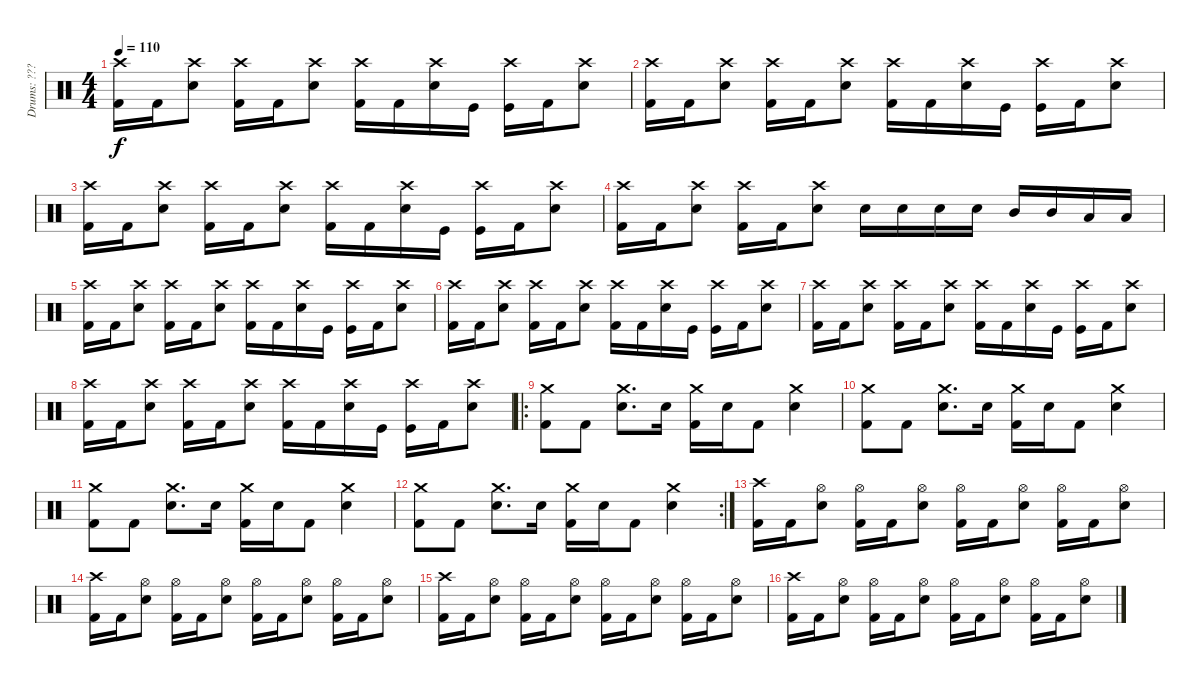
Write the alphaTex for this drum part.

\track ("Drums: ???" "Drums: ???") {instrument percussion}
\staff {score}
\articulation defaults
\ts (4 4)
\tempo 110
\clef neutral
\ks c
("Kick (hit) 2" "Crash high (hit)").16{dy f} "Kick (hit) 2".16 ("Electric Snare (hit)" "Crash high (hit)").8 ("Kick (hit) 2" "Crash high (hit)").16 "Kick (hit) 2".16 ("Electric Snare (hit)" "Crash high (hit)").8 ("Kick (hit) 2" "Crash high (hit)").16 "Kick (hit) 2".16 ("Electric Snare (hit)" "Crash high (hit)").16 "Kick (hit)".16 ("Kick (hit)" "Crash high (hit)").16 "Kick (hit) 2".16 ("Electric Snare (hit)" "Crash high (hit)").8 |
("Kick (hit) 2" "Crash high (hit)").16 "Kick (hit) 2".16 ("Electric Snare (hit)" "Crash high (hit)").8 ("Kick (hit) 2" "Crash high (hit)").16 "Kick (hit) 2".16 ("Electric Snare (hit)" "Crash high (hit)").8 ("Kick (hit) 2" "Crash high (hit)").16 "Kick (hit) 2".16 ("Electric Snare (hit)" "Crash high (hit)").16 "Kick (hit)".16 ("Kick (hit)" "Crash high (hit)").16 "Kick (hit) 2".16 ("Electric Snare (hit)" "Crash high (hit)").8 |
("Kick (hit) 2" "Crash high (hit)").16 "Kick (hit) 2".16 ("Electric Snare (hit)" "Crash high (hit)").8 ("Kick (hit) 2" "Crash high (hit)").16 "Kick (hit) 2".16 ("Electric Snare (hit)" "Crash high (hit)").8 ("Kick (hit) 2" "Crash high (hit)").16 "Kick (hit) 2".16 ("Electric Snare (hit)" "Crash high (hit)").16 "Kick (hit)".16 ("Kick (hit)" "Crash high (hit)").16 "Kick (hit) 2".16 ("Electric Snare (hit)" "Crash high (hit)").8 |
("Kick (hit) 2" "Crash high (hit)").16 "Kick (hit) 2".16 ("Electric Snare (hit)" "Crash high (hit)").8 ("Kick (hit) 2" "Crash high (hit)").16 "Kick (hit) 2".16 ("Electric Snare (hit)" "Crash high (hit)").8 "Electric Snare (hit)".16 "Electric Snare (hit)".16 "Electric Snare (hit)".16 "Electric Snare (hit)".16 "Mid Tom (hit)".16 "Mid Tom (hit)".16 "Low Tom (hit)".16 "Low Tom (hit)".16 |
("Kick (hit) 2" "Crash high (hit)").16 "Kick (hit) 2".16 ("Electric Snare (hit)" "Crash high (hit)").8 ("Kick (hit) 2" "Crash high (hit)").16 "Kick (hit) 2".16 ("Electric Snare (hit)" "Crash high (hit)").8 ("Kick (hit) 2" "Crash high (hit)").16 "Kick (hit) 2".16 ("Electric Snare (hit)" "Crash high (hit)").16 "Kick (hit)".16 ("Kick (hit)" "Crash high (hit)").16 "Kick (hit) 2".16 ("Electric Snare (hit)" "Crash high (hit)").8 |
("Kick (hit) 2" "Crash high (hit)").16 "Kick (hit) 2".16 ("Electric Snare (hit)" "Crash high (hit)").8 ("Kick (hit) 2" "Crash high (hit)").16 "Kick (hit) 2".16 ("Electric Snare (hit)" "Crash high (hit)").8 ("Kick (hit) 2" "Crash high (hit)").16 "Kick (hit) 2".16 ("Electric Snare (hit)" "Crash high (hit)").16 "Kick (hit)".16 ("Kick (hit)" "Crash high (hit)").16 "Kick (hit) 2".16 ("Electric Snare (hit)" "Crash high (hit)").8 |
("Kick (hit) 2" "Crash high (hit)").16 "Kick (hit) 2".16 ("Electric Snare (hit)" "Crash high (hit)").8 ("Kick (hit) 2" "Crash high (hit)").16 "Kick (hit) 2".16 ("Electric Snare (hit)" "Crash high (hit)").8 ("Kick (hit) 2" "Crash high (hit)").16 "Kick (hit) 2".16 ("Electric Snare (hit)" "Crash high (hit)").16 "Kick (hit)".16 ("Kick (hit)" "Crash high (hit)").16 "Kick (hit) 2".16 ("Electric Snare (hit)" "Crash high (hit)").8 |
("Kick (hit) 2" "Crash high (hit)").16 "Kick (hit) 2".16 ("Electric Snare (hit)" "Crash high (hit)").8 ("Kick (hit) 2" "Crash high (hit)").16 "Kick (hit) 2".16 ("Electric Snare (hit)" "Crash high (hit)").8 ("Kick (hit) 2" "Crash high (hit)").16 "Kick (hit) 2".16 ("Electric Snare (hit)" "Crash high (hit)").16 "Kick (hit)".16 ("Kick (hit)" "Crash high (hit)").16 "Kick (hit) 2".16 ("Electric Snare (hit)" "Crash high (hit)").8 |
\ro
("Kick (hit) 2" "Crash medium (hit)").8 "Kick (hit) 2".8 ("Electric Snare (hit)" "Crash medium (hit)").8{d} "Electric Snare (hit)".16 ("Kick (hit) 2" "Crash medium (hit)").16 "Electric Snare (hit)".16 "Kick (hit) 2".8 ("Electric Snare (hit)" "Crash medium (hit)").4 |
("Kick (hit) 2" "Crash medium (hit)").8 "Kick (hit) 2".8 ("Electric Snare (hit)" "Crash medium (hit)").8{d} "Electric Snare (hit)".16 ("Kick (hit) 2" "Crash medium (hit)").16 "Electric Snare (hit)".16 "Kick (hit) 2".8 ("Electric Snare (hit)" "Crash medium (hit)").4 |
("Kick (hit) 2" "Crash medium (hit)").8 "Kick (hit) 2".8 ("Electric Snare (hit)" "Crash medium (hit)").8{d} "Electric Snare (hit)".16 ("Kick (hit) 2" "Crash medium (hit)").16 "Electric Snare (hit)".16 "Kick (hit) 2".8 ("Electric Snare (hit)" "Crash medium (hit)").4 |
\rc 2
("Kick (hit) 2" "Crash medium (hit)").8 "Kick (hit) 2".8 ("Electric Snare (hit)" "Crash medium (hit)").8{d} "Electric Snare (hit)".16 ("Kick (hit) 2" "Crash medium (hit)").16 "Electric Snare (hit)".16 "Kick (hit) 2".8 ("Electric Snare (hit)" "Crash medium (hit)").4 |
("Kick (hit) 2" "Crash high (hit)").16 "Kick (hit) 2".16 ("Electric Snare (hit)" "Hi-Hat (open)").8 ("Kick (hit) 2" "Hi-Hat (open)").16 "Kick (hit) 2".16 ("Electric Snare (hit)" "Hi-Hat (open)").8 ("Kick (hit) 2" "Hi-Hat (open)").16 "Kick (hit) 2".16 ("Electric Snare (hit)" "Hi-Hat (open)").8 ("Kick (hit) 2" "Hi-Hat (open)").16 "Kick (hit) 2".16 ("Electric Snare (hit)" "Hi-Hat (open)").8 |
("Kick (hit) 2" "Crash high (hit)").16 "Kick (hit) 2".16 ("Electric Snare (hit)" "Hi-Hat (open)").8 ("Kick (hit) 2" "Hi-Hat (open)").16 "Kick (hit) 2".16 ("Electric Snare (hit)" "Hi-Hat (open)").8 ("Kick (hit) 2" "Hi-Hat (open)").16 "Kick (hit) 2".16 ("Electric Snare (hit)" "Hi-Hat (open)").8 ("Kick (hit) 2" "Hi-Hat (open)").16 "Kick (hit) 2".16 ("Electric Snare (hit)" "Hi-Hat (open)").8 |
("Kick (hit) 2" "Crash high (hit)").16 "Kick (hit) 2".16 ("Electric Snare (hit)" "Hi-Hat (open)").8 ("Kick (hit) 2" "Hi-Hat (open)").16 "Kick (hit) 2".16 ("Electric Snare (hit)" "Hi-Hat (open)").8 ("Kick (hit) 2" "Hi-Hat (open)").16 "Kick (hit) 2".16 ("Electric Snare (hit)" "Hi-Hat (open)").8 ("Kick (hit) 2" "Hi-Hat (open)").16 "Kick (hit) 2".16 ("Electric Snare (hit)" "Hi-Hat (open)").8 |
("Kick (hit) 2" "Crash high (hit)").16 "Kick (hit) 2".16 ("Electric Snare (hit)" "Hi-Hat (open)").8 ("Kick (hit) 2" "Hi-Hat (open)").16 "Kick (hit) 2".16 ("Electric Snare (hit)" "Hi-Hat (open)").8 ("Kick (hit) 2" "Hi-Hat (open)").16 "Kick (hit) 2".16 ("Electric Snare (hit)" "Hi-Hat (open)").8 ("Kick (hit) 2" "Hi-Hat (open)").16 "Kick (hit) 2".16 ("Electric Snare (hit)" "Hi-Hat (open)").8
